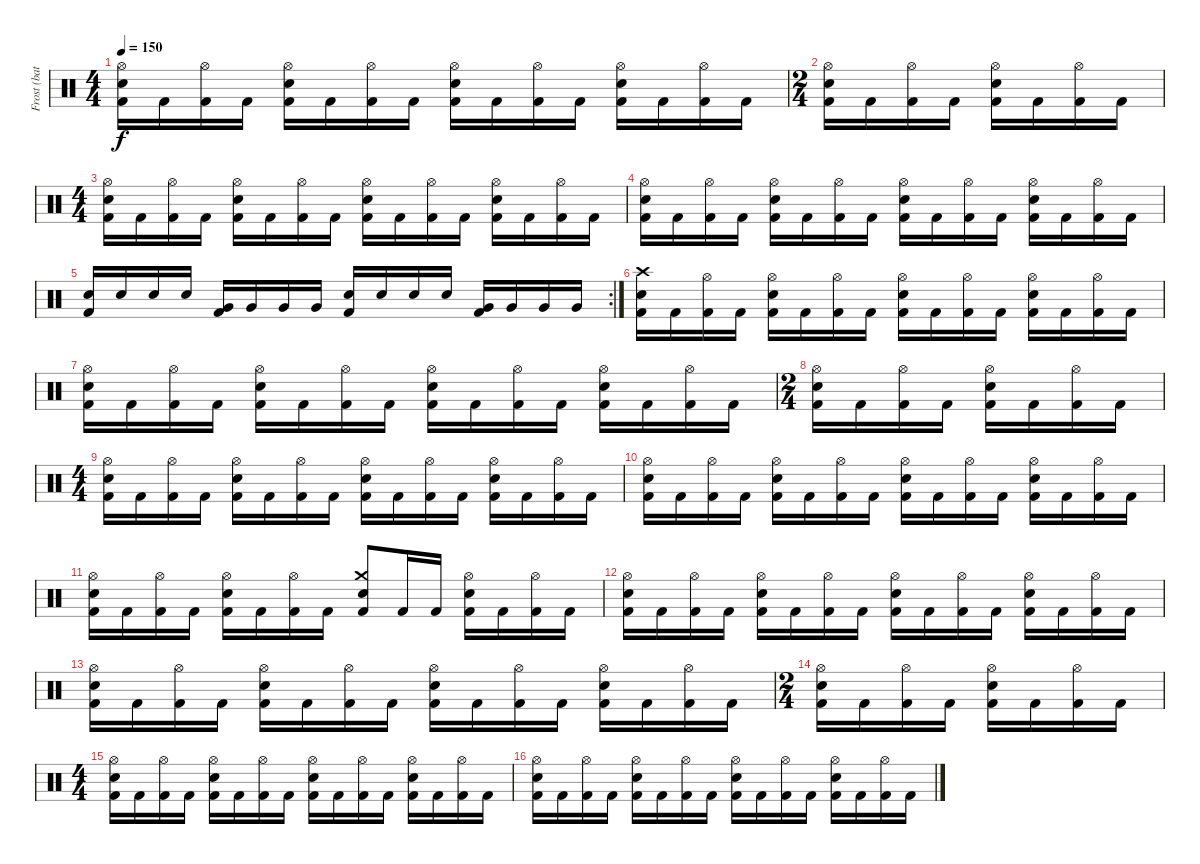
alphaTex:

\track ("Frost (battery)" "Frost (bat") {instrument percussion}
\staff {score}
\articulation defaults
\ts (4 4)
\tempo 150
\clef neutral
\ks c
("Hi-Hat (open)" "Electric Snare (hit)" "Kick (hit) 2").16{dy f} "Kick (hit) 2".16 ("Hi-Hat (open)" "Kick (hit) 2").16 "Kick (hit) 2".16 ("Hi-Hat (open)" "Electric Snare (hit)" "Kick (hit) 2").16 "Kick (hit) 2".16 ("Hi-Hat (open)" "Kick (hit) 2").16 "Kick (hit) 2".16 ("Hi-Hat (open)" "Electric Snare (hit)" "Kick (hit) 2").16 "Kick (hit) 2".16 ("Hi-Hat (open)" "Kick (hit) 2").16 "Kick (hit) 2".16 ("Hi-Hat (open)" "Electric Snare (hit)" "Kick (hit) 2").16 "Kick (hit) 2".16 ("Hi-Hat (open)" "Kick (hit) 2").16 "Kick (hit) 2".16 |
\ts (2 4)
("Hi-Hat (open)" "Electric Snare (hit)" "Kick (hit) 2").16 "Kick (hit) 2".16 ("Hi-Hat (open)" "Kick (hit) 2").16 "Kick (hit) 2".16 ("Hi-Hat (open)" "Electric Snare (hit)" "Kick (hit) 2").16 "Kick (hit) 2".16 ("Hi-Hat (open)" "Kick (hit) 2").16 "Kick (hit) 2".16 |
\ts (4 4)
("Hi-Hat (open)" "Electric Snare (hit)" "Kick (hit) 2").16 "Kick (hit) 2".16 ("Hi-Hat (open)" "Kick (hit) 2").16 "Kick (hit) 2".16 ("Hi-Hat (open)" "Electric Snare (hit)" "Kick (hit) 2").16 "Kick (hit) 2".16 ("Hi-Hat (open)" "Kick (hit) 2").16 "Kick (hit) 2".16 ("Hi-Hat (open)" "Electric Snare (hit)" "Kick (hit) 2").16 "Kick (hit) 2".16 ("Hi-Hat (open)" "Kick (hit) 2").16 "Kick (hit) 2".16 ("Hi-Hat (open)" "Electric Snare (hit)" "Kick (hit) 2").16 "Kick (hit) 2".16 ("Hi-Hat (open)" "Kick (hit) 2").16 "Kick (hit) 2".16 |
("Hi-Hat (open)" "Electric Snare (hit)" "Kick (hit) 2").16 "Kick (hit) 2".16 ("Hi-Hat (open)" "Kick (hit) 2").16 "Kick (hit) 2".16 ("Hi-Hat (open)" "Electric Snare (hit)" "Kick (hit) 2").16 "Kick (hit) 2".16 ("Hi-Hat (open)" "Kick (hit) 2").16 "Kick (hit) 2".16 ("Hi-Hat (open)" "Electric Snare (hit)" "Kick (hit) 2").16 "Kick (hit) 2".16 ("Hi-Hat (open)" "Kick (hit) 2").16 "Kick (hit) 2".16 ("Hi-Hat (open)" "Electric Snare (hit)" "Kick (hit) 2").16 "Kick (hit) 2".16 ("Hi-Hat (open)" "Kick (hit) 2").16 "Kick (hit) 2".16 |
\rc 2
("Electric Snare (hit)" "Kick (hit) 2").16 "Electric Snare (hit)".16 "Electric Snare (hit)".16 "Electric Snare (hit)".16 ("Very Low Tom (hit)" "Kick (hit) 2").16 "Very Low Tom (hit)".16 "Very Low Tom (hit)".16 "Very Low Tom (hit)".16 ("Electric Snare (hit)" "Kick (hit) 2").16 "Electric Snare (hit)".16 "Electric Snare (hit)".16 "Electric Snare (hit)".16 ("Very Low Tom (hit)" "Kick (hit) 2").16 "Very Low Tom (hit)".16 "Very Low Tom (hit)".16 "Very Low Tom (hit)".16 |
("Crash high (hit)" "Electric Snare (hit)" "Kick (hit) 2").16 "Kick (hit) 2".16 ("Hi-Hat (open)" "Kick (hit) 2").16 "Kick (hit) 2".16 ("Hi-Hat (open)" "Electric Snare (hit)" "Kick (hit) 2").16 "Kick (hit) 2".16 ("Hi-Hat (open)" "Kick (hit) 2").16 "Kick (hit) 2".16 ("Hi-Hat (open)" "Electric Snare (hit)" "Kick (hit) 2").16 "Kick (hit) 2".16 ("Hi-Hat (open)" "Kick (hit) 2").16 "Kick (hit) 2".16 ("Hi-Hat (open)" "Electric Snare (hit)" "Kick (hit) 2").16 "Kick (hit) 2".16 ("Hi-Hat (open)" "Kick (hit) 2").16 "Kick (hit) 2".16 |
("Hi-Hat (open)" "Electric Snare (hit)" "Kick (hit) 2").16 "Kick (hit) 2".16 ("Hi-Hat (open)" "Kick (hit) 2").16 "Kick (hit) 2".16 ("Hi-Hat (open)" "Electric Snare (hit)" "Kick (hit) 2").16 "Kick (hit) 2".16 ("Hi-Hat (open)" "Kick (hit) 2").16 "Kick (hit) 2".16 ("Hi-Hat (open)" "Electric Snare (hit)" "Kick (hit) 2").16 "Kick (hit) 2".16 ("Hi-Hat (open)" "Kick (hit) 2").16 "Kick (hit) 2".16 ("Hi-Hat (open)" "Electric Snare (hit)" "Kick (hit) 2").16 "Kick (hit) 2".16 ("Hi-Hat (open)" "Kick (hit) 2").16 "Kick (hit) 2".16 |
\ts (2 4)
("Hi-Hat (open)" "Electric Snare (hit)" "Kick (hit) 2").16 "Kick (hit) 2".16 ("Hi-Hat (open)" "Kick (hit) 2").16 "Kick (hit) 2".16 ("Hi-Hat (open)" "Electric Snare (hit)" "Kick (hit) 2").16 "Kick (hit) 2".16 ("Hi-Hat (open)" "Kick (hit) 2").16 "Kick (hit) 2".16 |
\ts (4 4)
("Hi-Hat (open)" "Electric Snare (hit)" "Kick (hit) 2").16 "Kick (hit) 2".16 ("Hi-Hat (open)" "Kick (hit) 2").16 "Kick (hit) 2".16 ("Hi-Hat (open)" "Electric Snare (hit)" "Kick (hit) 2").16 "Kick (hit) 2".16 ("Hi-Hat (open)" "Kick (hit) 2").16 "Kick (hit) 2".16 ("Hi-Hat (open)" "Electric Snare (hit)" "Kick (hit) 2").16 "Kick (hit) 2".16 ("Hi-Hat (open)" "Kick (hit) 2").16 "Kick (hit) 2".16 ("Hi-Hat (open)" "Electric Snare (hit)" "Kick (hit) 2").16 "Kick (hit) 2".16 ("Hi-Hat (open)" "Kick (hit) 2").16 "Kick (hit) 2".16 |
("Hi-Hat (open)" "Electric Snare (hit)" "Kick (hit) 2").16 "Kick (hit) 2".16 ("Hi-Hat (open)" "Kick (hit) 2").16 "Kick (hit) 2".16 ("Hi-Hat (open)" "Electric Snare (hit)" "Kick (hit) 2").16 "Kick (hit) 2".16 ("Hi-Hat (open)" "Kick (hit) 2").16 "Kick (hit) 2".16 ("Hi-Hat (open)" "Electric Snare (hit)" "Kick (hit) 2").16 "Kick (hit) 2".16 ("Hi-Hat (open)" "Kick (hit) 2").16 "Kick (hit) 2".16 ("Hi-Hat (open)" "Electric Snare (hit)" "Kick (hit) 2").16 "Kick (hit) 2".16 ("Hi-Hat (open)" "Kick (hit) 2").16 "Kick (hit) 2".16 |
("Hi-Hat (open)" "Electric Snare (hit)" "Kick (hit) 2").16 "Kick (hit) 2".16 ("Hi-Hat (open)" "Kick (hit) 2").16 "Kick (hit) 2".16 ("Hi-Hat (open)" "Electric Snare (hit)" "Kick (hit) 2").16 "Kick (hit) 2".16 ("Hi-Hat (open)" "Kick (hit) 2").16 "Kick (hit) 2".16 ("Crash medium (hit)" "Snare (hit) 2" "Kick (hit) 2").8 "Kick (hit) 2".16 "Kick (hit) 2".16 ("Hi-Hat (open)" "Electric Snare (hit)" "Kick (hit) 2").16 "Kick (hit) 2".16 ("Hi-Hat (open)" "Kick (hit) 2").16 "Kick (hit) 2".16 |
("Hi-Hat (open)" "Electric Snare (hit)" "Kick (hit) 2").16 "Kick (hit) 2".16 ("Hi-Hat (open)" "Kick (hit) 2").16 "Kick (hit) 2".16 ("Hi-Hat (open)" "Electric Snare (hit)" "Kick (hit) 2").16 "Kick (hit) 2".16 ("Hi-Hat (open)" "Kick (hit) 2").16 "Kick (hit) 2".16 ("Hi-Hat (open)" "Electric Snare (hit)" "Kick (hit) 2").16 "Kick (hit) 2".16 ("Hi-Hat (open)" "Kick (hit) 2").16 "Kick (hit) 2".16 ("Hi-Hat (open)" "Electric Snare (hit)" "Kick (hit) 2").16 "Kick (hit) 2".16 ("Hi-Hat (open)" "Kick (hit) 2").16 "Kick (hit) 2".16 |
("Hi-Hat (open)" "Electric Snare (hit)" "Kick (hit) 2").16 "Kick (hit) 2".16 ("Hi-Hat (open)" "Kick (hit) 2").16 "Kick (hit) 2".16 ("Hi-Hat (open)" "Electric Snare (hit)" "Kick (hit) 2").16 "Kick (hit) 2".16 ("Hi-Hat (open)" "Kick (hit) 2").16 "Kick (hit) 2".16 ("Hi-Hat (open)" "Electric Snare (hit)" "Kick (hit) 2").16 "Kick (hit) 2".16 ("Hi-Hat (open)" "Kick (hit) 2").16 "Kick (hit) 2".16 ("Hi-Hat (open)" "Electric Snare (hit)" "Kick (hit) 2").16 "Kick (hit) 2".16 ("Hi-Hat (open)" "Kick (hit) 2").16 "Kick (hit) 2".16 |
\ts (2 4)
("Hi-Hat (open)" "Electric Snare (hit)" "Kick (hit) 2").16 "Kick (hit) 2".16 ("Hi-Hat (open)" "Kick (hit) 2").16 "Kick (hit) 2".16 ("Hi-Hat (open)" "Electric Snare (hit)" "Kick (hit) 2").16 "Kick (hit) 2".16 ("Hi-Hat (open)" "Kick (hit) 2").16 "Kick (hit) 2".16 |
\ts (4 4)
("Hi-Hat (open)" "Electric Snare (hit)" "Kick (hit) 2").16 "Kick (hit) 2".16 ("Hi-Hat (open)" "Kick (hit) 2").16 "Kick (hit) 2".16 ("Hi-Hat (open)" "Electric Snare (hit)" "Kick (hit) 2").16 "Kick (hit) 2".16 ("Hi-Hat (open)" "Kick (hit) 2").16 "Kick (hit) 2".16 ("Hi-Hat (open)" "Electric Snare (hit)" "Kick (hit) 2").16 "Kick (hit) 2".16 ("Hi-Hat (open)" "Kick (hit) 2").16 "Kick (hit) 2".16 ("Hi-Hat (open)" "Electric Snare (hit)" "Kick (hit) 2").16 "Kick (hit) 2".16 ("Hi-Hat (open)" "Kick (hit) 2").16 "Kick (hit) 2".16 |
("Hi-Hat (open)" "Electric Snare (hit)" "Kick (hit) 2").16 "Kick (hit) 2".16 ("Hi-Hat (open)" "Kick (hit) 2").16 "Kick (hit) 2".16 ("Hi-Hat (open)" "Electric Snare (hit)" "Kick (hit) 2").16 "Kick (hit) 2".16 ("Hi-Hat (open)" "Kick (hit) 2").16 "Kick (hit) 2".16 ("Hi-Hat (open)" "Electric Snare (hit)" "Kick (hit) 2").16 "Kick (hit) 2".16 ("Hi-Hat (open)" "Kick (hit) 2").16 "Kick (hit) 2".16 ("Hi-Hat (open)" "Electric Snare (hit)" "Kick (hit) 2").16 "Kick (hit) 2".16 ("Hi-Hat (open)" "Kick (hit) 2").16 "Kick (hit) 2".16
